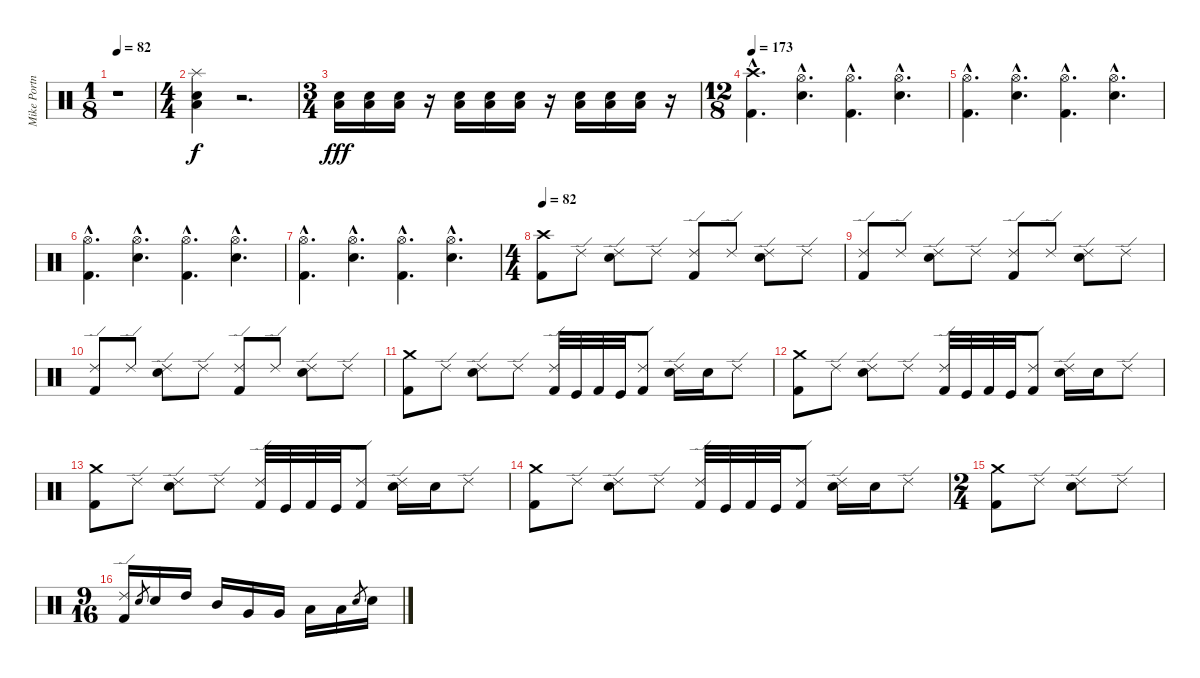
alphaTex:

\track ("Mike Portnoy" "Mike Portn") {instrument percussion}
\staff {score}
\articulation defaults
\ts (1 8)
\tempo 82
\clef neutral
\ks c
r.1{dy f} |
\ts (4 4)
("Splash (hit)" "Snare (hit) 2" "Low Floor Tom (hit)").4 r.2{d} |
\ts (3 4)
("Snare (hit) 2" "Low Floor Tom (hit)").16{dy fff} ("Snare (hit) 2" "Low Floor Tom (hit)").16 ("Snare (hit) 2" "Low Floor Tom (hit)").16 r.16 ("Snare (hit) 2" "Low Floor Tom (hit)").16 ("Snare (hit) 2" "Low Floor Tom (hit)").16 ("Snare (hit) 2" "Low Floor Tom (hit)").16 r.16 ("Snare (hit) 2" "Low Floor Tom (hit)").16 ("Snare (hit) 2" "Low Floor Tom (hit)").16 ("Snare (hit) 2" "Low Floor Tom (hit)").16 r.16 |
\ts (12 8)
\tempo 173
("Crash high (hit)"{hac} "Kick (hit) 2"{hac}).4{d} ("Hi-Hat (open)"{hac} "Snare (hit) 2"{hac}).4{d} ("Hi-Hat (open)"{hac} "Kick (hit) 2"{hac}).4{d} ("Hi-Hat (open)"{hac} "Snare (hit) 2"{hac}).4{d} |
("Hi-Hat (open)"{hac} "Kick (hit) 2"{hac}).4{d} ("Hi-Hat (open)"{hac} "Snare (hit) 2"{hac}).4{d} ("Hi-Hat (open)"{hac} "Kick (hit) 2"{hac}).4{d} ("Hi-Hat (open)"{hac} "Snare (hit) 2"{hac}).4{d} |
("Hi-Hat (open)"{hac} "Kick (hit) 2"{hac}).4{d} ("Hi-Hat (open)"{hac} "Snare (hit) 2"{hac}).4{d} ("Hi-Hat (open)"{hac} "Kick (hit) 2"{hac}).4{d} ("Hi-Hat (open)"{hac} "Snare (hit) 2"{hac}).4{d} |
("Hi-Hat (open)"{hac} "Kick (hit) 2"{hac}).4{d} ("Hi-Hat (open)"{hac} "Snare (hit) 2"{hac}).4{d} ("Hi-Hat (open)"{hac} "Kick (hit) 2"{hac}).4{d} ("Hi-Hat (open)"{hac} "Snare (hit) 2"{hac}).4{d} |
\ts (4 4)
\tempo 82
("Crash high (hit)" "Kick (hit) 2").8 "Ride (edge) 2".8 ("Ride (edge) 2" "Snare (hit) 2").8 "Ride (edge) 2".8 ("Ride (edge) 2" "Kick (hit) 2").8 "Ride (edge) 2".8 ("Ride (edge) 2" "Snare (hit) 2").8 "Ride (edge) 2".8 |
("Ride (edge) 2" "Kick (hit) 2").8 "Ride (edge) 2".8 ("Ride (edge) 2" "Snare (hit) 2").8 "Ride (edge) 2".8 ("Ride (edge) 2" "Kick (hit) 2").8 "Ride (edge) 2".8 ("Ride (edge) 2" "Snare (hit) 2").8 "Ride (edge) 2".8 |
("Ride (edge) 2" "Kick (hit) 2").8 "Ride (edge) 2".8 ("Ride (edge) 2" "Snare (hit) 2").8 "Ride (edge) 2".8 ("Ride (edge) 2" "Kick (hit) 2").8 "Ride (edge) 2".8 ("Ride (edge) 2" "Snare (hit) 2").8 "Ride (edge) 2".8 |
("Crash medium (hit)" "Kick (hit) 2").8 "Ride (edge) 2".8 ("Ride (edge) 2" "Snare (hit) 2").8 "Ride (edge) 2".8 ("Ride (edge) 2" "Kick (hit) 2").32 "Kick (hit)".32 "Kick (hit) 2".32 "Kick (hit)".32 ("Ride (edge) 2" "Kick (hit) 2").8 ("Ride (edge) 2" "Snare (hit) 2").16 "Snare (hit) 2".16 "Ride (edge) 2".8 |
("Crash medium (hit)" "Kick (hit) 2").8 "Ride (edge) 2".8 ("Ride (edge) 2" "Snare (hit) 2").8 "Ride (edge) 2".8 ("Ride (edge) 2" "Kick (hit) 2").32 "Kick (hit)".32 "Kick (hit) 2".32 "Kick (hit)".32 ("Ride (edge) 2" "Kick (hit) 2").8 ("Ride (edge) 2" "Snare (hit) 2").16 "Snare (hit) 2".16 "Ride (edge) 2".8 |
("Crash medium (hit)" "Kick (hit) 2").8 "Ride (edge) 2".8 ("Ride (edge) 2" "Snare (hit) 2").8 "Ride (edge) 2".8 ("Ride (edge) 2" "Kick (hit) 2").32 "Kick (hit)".32 "Kick (hit) 2".32 "Kick (hit)".32 ("Ride (edge) 2" "Kick (hit) 2").8 ("Ride (edge) 2" "Snare (hit) 2").16 "Snare (hit) 2".16 "Ride (edge) 2".8 |
("Crash medium (hit)" "Kick (hit) 2").8 "Ride (edge) 2".8 ("Ride (edge) 2" "Snare (hit) 2").8 "Ride (edge) 2".8 ("Ride (edge) 2" "Kick (hit) 2").32 "Kick (hit)".32 "Kick (hit) 2".32 "Kick (hit)".32 ("Ride (edge) 2" "Kick (hit) 2").8 ("Ride (edge) 2" "Snare (hit) 2").16 "Snare (hit) 2".16 "Ride (edge) 2".8 |
\ts (2 4)
("Crash medium (hit)" "Kick (hit) 2").8 "Ride (edge) 2".8 ("Ride (edge) 2" "Snare (hit) 2").8 "Ride (edge) 2".8 |
\ts (9 16)
("Ride (edge) 2" "Kick (hit) 2").16 "Snare (hit) 2".8{gr} "Snare (hit) 2".16 "High Tom (hit)".16 "Mid Tom (hit)".16 "Very Low Tom (hit)".16 "Very Low Tom (hit)".16 "Low Floor Tom (hit)".16 "Low Floor Tom (hit)".16 "Snare (hit) 2".8{gr} "Snare (hit) 2".16
